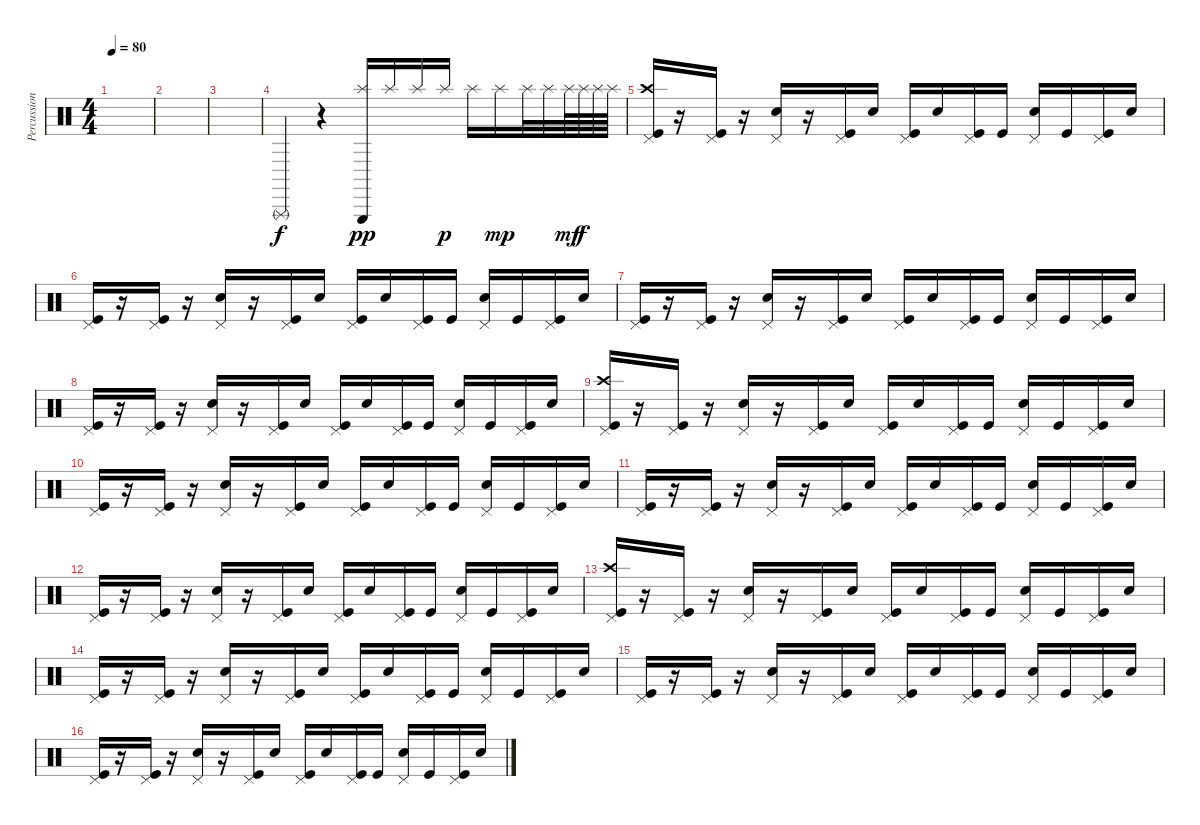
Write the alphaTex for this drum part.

\track ("Percussions" "Percussion") {instrument percussion}
\staff {score}
\articulation defaults
\ts (4 4)
\tempo 80
\clef neutral
\ks c
|
|
|
"Triangle (rnute)".4 r.4 ("Splash (hit)" "Triangle (hit)").16{dy pp} "Splash (hit)".16 "Splash (hit)".16 "Splash (hit)".16{dy p} "Splash (hit)".16 "Splash (hit)".16{dy mp} "Splash (hit)".32 "Splash (hit)".32 "Splash (hit)".64{dy mf} "Splash (hit)".64{dy f} "Splash (hit)".64 "Splash (hit)".64 |
("Pedal Hi-Hat (hit)" "Crash high (hit)" "Kick (hit)").16 r.16 ("Pedal Hi-Hat (hit)" "Kick (hit)").16 r.16 ("Pedal Hi-Hat (hit)" "Electric Snare (hit)").16 r.16 ("Pedal Hi-Hat (hit)" "Kick (hit)").16 "Electric Snare (hit)".16 ("Pedal Hi-Hat (hit)" "Kick (hit)").16 "Electric Snare (hit)".16 ("Pedal Hi-Hat (hit)" "Kick (hit)").16 "Kick (hit)".16 ("Pedal Hi-Hat (hit)" "Electric Snare (hit)").16 "Kick (hit)".16 ("Pedal Hi-Hat (hit)" "Kick (hit)").16 "Electric Snare (hit)".16 |
("Pedal Hi-Hat (hit)" "Kick (hit)").16 r.16 ("Pedal Hi-Hat (hit)" "Kick (hit)").16 r.16 ("Pedal Hi-Hat (hit)" "Electric Snare (hit)").16 r.16 ("Pedal Hi-Hat (hit)" "Kick (hit)").16 "Electric Snare (hit)".16 ("Pedal Hi-Hat (hit)" "Kick (hit)").16 "Electric Snare (hit)".16 ("Pedal Hi-Hat (hit)" "Kick (hit)").16 "Kick (hit)".16 ("Pedal Hi-Hat (hit)" "Electric Snare (hit)").16 "Kick (hit)".16 ("Pedal Hi-Hat (hit)" "Kick (hit)").16 "Electric Snare (hit)".16 |
("Pedal Hi-Hat (hit)" "Kick (hit)").16 r.16 ("Pedal Hi-Hat (hit)" "Kick (hit)").16 r.16 ("Pedal Hi-Hat (hit)" "Electric Snare (hit)").16 r.16 ("Pedal Hi-Hat (hit)" "Kick (hit)").16 "Electric Snare (hit)".16 ("Pedal Hi-Hat (hit)" "Kick (hit)").16 "Electric Snare (hit)".16 ("Pedal Hi-Hat (hit)" "Kick (hit)").16 "Kick (hit)".16 ("Pedal Hi-Hat (hit)" "Electric Snare (hit)").16 "Kick (hit)".16 ("Pedal Hi-Hat (hit)" "Kick (hit)").16 "Electric Snare (hit)".16 |
("Pedal Hi-Hat (hit)" "Kick (hit)").16 r.16 ("Pedal Hi-Hat (hit)" "Kick (hit)").16 r.16 ("Pedal Hi-Hat (hit)" "Electric Snare (hit)").16 r.16 ("Pedal Hi-Hat (hit)" "Kick (hit)").16 "Electric Snare (hit)".16 ("Pedal Hi-Hat (hit)" "Kick (hit)").16 "Electric Snare (hit)".16 ("Pedal Hi-Hat (hit)" "Kick (hit)").16 "Kick (hit)".16 ("Pedal Hi-Hat (hit)" "Electric Snare (hit)").16 "Kick (hit)".16 ("Pedal Hi-Hat (hit)" "Kick (hit)").16 "Electric Snare (hit)".16 |
("Pedal Hi-Hat (hit)" "Crash high (hit)" "Kick (hit)").16 r.16 ("Pedal Hi-Hat (hit)" "Kick (hit)").16 r.16 ("Pedal Hi-Hat (hit)" "Electric Snare (hit)").16 r.16 ("Pedal Hi-Hat (hit)" "Kick (hit)").16 "Electric Snare (hit)".16 ("Pedal Hi-Hat (hit)" "Kick (hit)").16 "Electric Snare (hit)".16 ("Pedal Hi-Hat (hit)" "Kick (hit)").16 "Kick (hit)".16 ("Pedal Hi-Hat (hit)" "Electric Snare (hit)").16 "Kick (hit)".16 ("Pedal Hi-Hat (hit)" "Kick (hit)").16 "Electric Snare (hit)".16 |
("Pedal Hi-Hat (hit)" "Kick (hit)").16 r.16 ("Pedal Hi-Hat (hit)" "Kick (hit)").16 r.16 ("Pedal Hi-Hat (hit)" "Electric Snare (hit)").16 r.16 ("Pedal Hi-Hat (hit)" "Kick (hit)").16 "Electric Snare (hit)".16 ("Pedal Hi-Hat (hit)" "Kick (hit)").16 "Electric Snare (hit)".16 ("Pedal Hi-Hat (hit)" "Kick (hit)").16 "Kick (hit)".16 ("Pedal Hi-Hat (hit)" "Electric Snare (hit)").16 "Kick (hit)".16 ("Pedal Hi-Hat (hit)" "Kick (hit)").16 "Electric Snare (hit)".16 |
("Pedal Hi-Hat (hit)" "Kick (hit)").16 r.16 ("Pedal Hi-Hat (hit)" "Kick (hit)").16 r.16 ("Pedal Hi-Hat (hit)" "Electric Snare (hit)").16 r.16 ("Pedal Hi-Hat (hit)" "Kick (hit)").16 "Electric Snare (hit)".16 ("Pedal Hi-Hat (hit)" "Kick (hit)").16 "Electric Snare (hit)".16 ("Pedal Hi-Hat (hit)" "Kick (hit)").16 "Kick (hit)".16 ("Pedal Hi-Hat (hit)" "Electric Snare (hit)").16 "Kick (hit)".16 ("Pedal Hi-Hat (hit)" "Kick (hit)").16 "Electric Snare (hit)".16 |
("Pedal Hi-Hat (hit)" "Kick (hit)").16 r.16 ("Pedal Hi-Hat (hit)" "Kick (hit)").16 r.16 ("Pedal Hi-Hat (hit)" "Electric Snare (hit)").16 r.16 ("Pedal Hi-Hat (hit)" "Kick (hit)").16 "Electric Snare (hit)".16 ("Pedal Hi-Hat (hit)" "Kick (hit)").16 "Electric Snare (hit)".16 ("Pedal Hi-Hat (hit)" "Kick (hit)").16 "Kick (hit)".16 ("Pedal Hi-Hat (hit)" "Electric Snare (hit)").16 "Kick (hit)".16 ("Pedal Hi-Hat (hit)" "Kick (hit)").16 "Electric Snare (hit)".16 |
("Pedal Hi-Hat (hit)" "Crash high (hit)" "Kick (hit)").16 r.16 ("Pedal Hi-Hat (hit)" "Kick (hit)").16 r.16 ("Pedal Hi-Hat (hit)" "Electric Snare (hit)").16 r.16 ("Pedal Hi-Hat (hit)" "Kick (hit)").16 "Electric Snare (hit)".16 ("Pedal Hi-Hat (hit)" "Kick (hit)").16 "Electric Snare (hit)".16 ("Pedal Hi-Hat (hit)" "Kick (hit)").16 "Kick (hit)".16 ("Pedal Hi-Hat (hit)" "Electric Snare (hit)").16 "Kick (hit)".16 ("Pedal Hi-Hat (hit)" "Kick (hit)").16 "Electric Snare (hit)".16 |
("Pedal Hi-Hat (hit)" "Kick (hit)").16 r.16 ("Pedal Hi-Hat (hit)" "Kick (hit)").16 r.16 ("Pedal Hi-Hat (hit)" "Electric Snare (hit)").16 r.16 ("Pedal Hi-Hat (hit)" "Kick (hit)").16 "Electric Snare (hit)".16 ("Pedal Hi-Hat (hit)" "Kick (hit)").16 "Electric Snare (hit)".16 ("Pedal Hi-Hat (hit)" "Kick (hit)").16 "Kick (hit)".16 ("Pedal Hi-Hat (hit)" "Electric Snare (hit)").16 "Kick (hit)".16 ("Pedal Hi-Hat (hit)" "Kick (hit)").16 "Electric Snare (hit)".16 |
("Pedal Hi-Hat (hit)" "Kick (hit)").16 r.16 ("Pedal Hi-Hat (hit)" "Kick (hit)").16 r.16 ("Pedal Hi-Hat (hit)" "Electric Snare (hit)").16 r.16 ("Pedal Hi-Hat (hit)" "Kick (hit)").16 "Electric Snare (hit)".16 ("Pedal Hi-Hat (hit)" "Kick (hit)").16 "Electric Snare (hit)".16 ("Pedal Hi-Hat (hit)" "Kick (hit)").16 "Kick (hit)".16 ("Pedal Hi-Hat (hit)" "Electric Snare (hit)").16 "Kick (hit)".16 ("Pedal Hi-Hat (hit)" "Kick (hit)").16 "Electric Snare (hit)".16 |
("Pedal Hi-Hat (hit)" "Kick (hit)").16 r.16 ("Pedal Hi-Hat (hit)" "Kick (hit)").16 r.16 ("Pedal Hi-Hat (hit)" "Electric Snare (hit)").16 r.16 ("Pedal Hi-Hat (hit)" "Kick (hit)").16 "Electric Snare (hit)".16 ("Pedal Hi-Hat (hit)" "Kick (hit)").16 "Electric Snare (hit)".16 ("Pedal Hi-Hat (hit)" "Kick (hit)").16 "Kick (hit)".16 ("Pedal Hi-Hat (hit)" "Electric Snare (hit)").16 "Kick (hit)".16 ("Pedal Hi-Hat (hit)" "Kick (hit)").16 "Electric Snare (hit)".16
